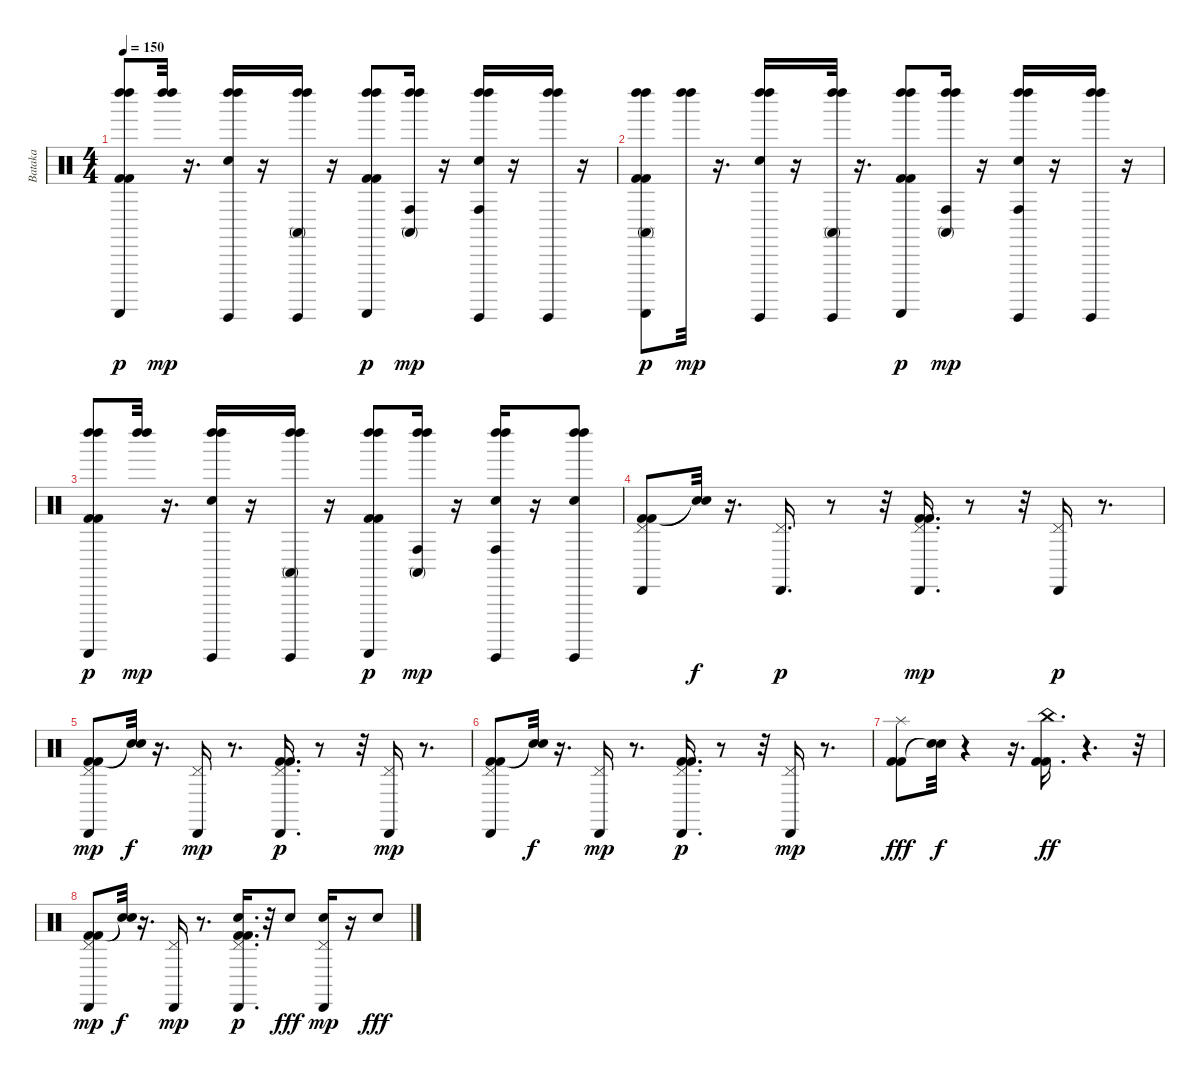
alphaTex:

\track ("Bataka" "Bataka") {instrument percussion}
\staff {score}
\articulation defaults
\ts (4 4)
\tempo 150
\clef neutral
\ks c
("Kick (hit) 2" "Kick (hit) 2" "Left Maraca (hit)" "Guiro (scrap-return)" "Left Maraca (hit)").8{dy p} ("Left Maraca (hit)" "Left Maraca (hit)").32{dy mp} r.16{d} ("Electric Snare (hit)" "Left Maraca (hit)" "Guiro (hit)" "Left Maraca (hit)").16 r.16 ("Left Maraca (hit)" "Conga high (mute)" "Guiro (hit)" "Left Maraca (hit)").16 r.16 ("Kick (hit) 2" "Kick (hit) 2" "Left Maraca (hit)" "Guiro (scrap-return)" "Left Maraca (hit)").8{dy p} ("Left Maraca (hit)" "Conga high (hit)" "Conga high (mute)" "Left Maraca (hit)").16{dy mp} r.16 ("Electric Snare (hit)" "Left Maraca (hit)" "Conga high (hit)" "Guiro (hit)" "Left Maraca (hit)").16 r.16 ("Left Maraca (hit)" "Guiro (hit)" "Left Maraca (hit)").16 r.16 |
("Kick (hit) 2" "Kick (hit) 2" "Left Maraca (hit)" "Conga high (mute)" "Guiro (scrap-return)" "Left Maraca (hit)").8{dy p} ("Left Maraca (hit)" "Left Maraca (hit)").32{dy mp} r.16{d} ("Electric Snare (hit)" "Left Maraca (hit)" "Guiro (hit)" "Left Maraca (hit)").16 r.16 ("Left Maraca (hit)" "Conga high (mute)" "Guiro (hit)" "Left Maraca (hit)").32 r.16{d} ("Kick (hit) 2" "Kick (hit) 2" "Left Maraca (hit)" "Guiro (scrap-return)" "Left Maraca (hit)").8{dy p} ("Left Maraca (hit)" "Conga high (hit)" "Conga high (mute)" "Left Maraca (hit)").16{dy mp} r.16 ("Electric Snare (hit)" "Left Maraca (hit)" "Conga high (hit)" "Guiro (hit)" "Left Maraca (hit)").16 r.16 ("Left Maraca (hit)" "Guiro (hit)" "Left Maraca (hit)").16 r.16 |
("Kick (hit) 2" "Kick (hit) 2" "Left Maraca (hit)" "Guiro (scrap-return)" "Left Maraca (hit)").8{dy p} ("Left Maraca (hit)" "Left Maraca (hit)").32{dy mp} r.16{d} ("Electric Snare (hit)" "Left Maraca (hit)" "Guiro (hit)" "Left Maraca (hit)").16 r.16 ("Left Maraca (hit)" "Conga high (mute)" "Guiro (hit)" "Left Maraca (hit)").16 r.16 ("Kick (hit) 2" "Kick (hit) 2" "Left Maraca (hit)" "Guiro (scrap-return)" "Left Maraca (hit)").8{dy p} ("Left Maraca (hit)" "Conga high (hit)" "Conga high (mute)" "Left Maraca (hit)").16{dy mp} r.16 ("Electric Snare (hit)" "Left Maraca (hit)" "Conga high (hit)" "Guiro (hit)" "Left Maraca (hit)").16 r.16 ("Electric Snare (hit)" "Left Maraca (hit)" "Guiro (hit)" "Left Maraca (hit)").8 |
("Kick (hit) 2" "Kick (hit) 2" "Pedal Hi-Hat (hit)" "Cabasa (hit)").8 ("Snare (hit)"{t} "Snare (hit)"{t}).32{dy f} r.16{d} ("Pedal Hi-Hat (hit)" "Cabasa (hit)").16{d dy p} r.8 r.32 ("Kick (hit) 2" "Kick (hit) 2" "Pedal Hi-Hat (hit)" "Cabasa (hit)").16{d dy mp} r.8 r.32 ("Pedal Hi-Hat (hit)" "Cabasa (hit)").16{dy p} r.8{d} |
("Kick (hit) 2" "Kick (hit) 2" "Pedal Hi-Hat (hit)" "Cabasa (hit)").8{dy mp} ("Snare (hit)"{t} "Snare (hit)"{t}).32{dy f} r.16{d} ("Pedal Hi-Hat (hit)" "Cabasa (hit)").16{dy mp} r.8{d} ("Kick (hit) 2" "Kick (hit) 2" "Pedal Hi-Hat (hit)" "Cabasa (hit)").16{d dy p} r.8 r.32 ("Pedal Hi-Hat (hit)" "Cabasa (hit)").16{dy mp} r.8{d} |
("Kick (hit) 2" "Kick (hit) 2" "Pedal Hi-Hat (hit)" "Cabasa (hit)").8 ("Snare (hit)"{t} "Snare (hit)"{t}).32{dy f} r.16{d} ("Pedal Hi-Hat (hit)" "Cabasa (hit)").16{dy mp} r.8{d} ("Kick (hit) 2" "Kick (hit) 2" "Pedal Hi-Hat (hit)" "Cabasa (hit)").16{d dy p} r.8 r.32 ("Pedal Hi-Hat (hit)" "Cabasa (hit)").16{dy mp} r.8{d} |
("Kick (hit) 2" "Kick (hit) 2" "Splash (hit)").8{dy fff} ("Snare (hit)"{t} "Snare (hit)"{t}).32{dy f} r.4 r.16{d} ("Kick (hit) 2" "Kick (hit) 2" "China (hit)").16{d dy ff} r.4{d} r.32 |
("Kick (hit) 2" "Kick (hit) 2" "Pedal Hi-Hat (hit)" "Cabasa (hit)").8{dy mp} ("Snare (hit)"{t} "Snare (hit)"{t}).32{dy f} r.16{d} ("Pedal Hi-Hat (hit)" "Cabasa (hit)").16{dy mp} r.8{d} ("Kick (hit) 2" "Kick (hit) 2" "Electric Snare (hit)" "Pedal Hi-Hat (hit)" "Cabasa (hit)").16{d dy p} r.32 "Electric Snare (hit)".8{dy fff} ("Electric Snare (hit)" "Pedal Hi-Hat (hit)" "Cabasa (hit)").16{dy mp} r.16 "Electric Snare (hit)".8{dy fff}
